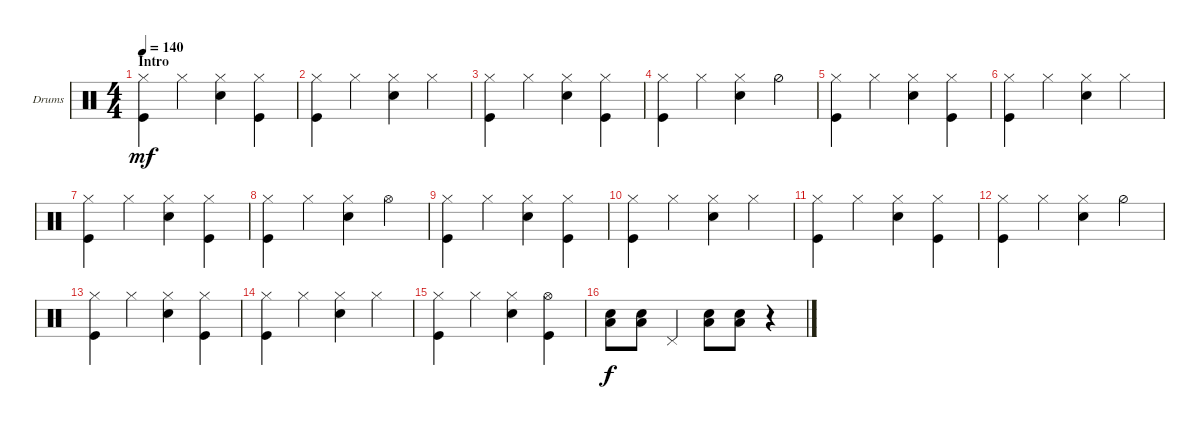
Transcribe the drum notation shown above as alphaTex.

\bracketExtendMode groupsimilarinstruments
\firstSystemTrackNameOrientation horizontal
\otherSystemsTrackNameOrientation horizontal
\track ("Drumkit (Ray Cooper)" "Drums") {instrument percussion}
\staff {score}
\articulation defaults
\ts (4 4)
\section ("" "Intro")
\tempo 140
\clef neutral
\scale
1.17024
\ks c
("Kick (hit)" "Hi-Hat (closed)").4{dy mf} "Hi-Hat (closed)".4 ("Hi-Hat (closed)" "Snare (hit) 2").4 ("Hi-Hat (closed)" "Kick (hit)").4 |
\scale
0.943253 ("Hi-Hat (closed)" "Kick (hit)").4 "Hi-Hat (closed)".4 ("Hi-Hat (closed)" "Snare (hit) 2").4 "Hi-Hat (closed)".4 |
\scale
0.943253 ("Kick (hit)" "Hi-Hat (closed)").4 "Hi-Hat (closed)".4 ("Hi-Hat (closed)" "Snare (hit) 2").4 ("Hi-Hat (closed)" "Kick (hit)").4 |
\scale
0.943253 ("Hi-Hat (closed)" "Kick (hit)").4 "Hi-Hat (closed)".4 ("Hi-Hat (closed)" "Snare (hit) 2").4 "Hi-Hat (half)".4 |
\scale
1.07945 ("Kick (hit)" "Hi-Hat (closed)").4 "Hi-Hat (closed)".4 ("Hi-Hat (closed)" "Snare (hit) 2").4 ("Hi-Hat (closed)" "Kick (hit)").4 |
\scale
0.973518 ("Hi-Hat (closed)" "Kick (hit)").4 "Hi-Hat (closed)".4 ("Hi-Hat (closed)" "Snare (hit) 2").4 "Hi-Hat (closed)".4 |
\scale
0.973518 ("Kick (hit)" "Hi-Hat (closed)").4 "Hi-Hat (closed)".4 ("Hi-Hat (closed)" "Snare (hit) 2").4 ("Hi-Hat (closed)" "Kick (hit)").4 |
\scale
0.973518 ("Hi-Hat (closed)" "Kick (hit)").4 "Hi-Hat (closed)".4 ("Hi-Hat (closed)" "Snare (hit) 2").4 "Hi-Hat (open)".4 |
\scale
1.07945 ("Kick (hit)" "Hi-Hat (closed)").4 "Hi-Hat (closed)".4 ("Hi-Hat (closed)" "Snare (hit) 2").4 ("Hi-Hat (closed)" "Kick (hit)").4 |
\scale
0.973518 ("Hi-Hat (closed)" "Kick (hit)").4 "Hi-Hat (closed)".4 ("Hi-Hat (closed)" "Snare (hit) 2").4 "Hi-Hat (closed)".4 |
\scale
0.973518 ("Kick (hit)" "Hi-Hat (closed)").4 "Hi-Hat (closed)".4 ("Hi-Hat (closed)" "Snare (hit) 2").4 ("Hi-Hat (closed)" "Kick (hit)").4 |
\scale
0.973518 ("Hi-Hat (closed)" "Kick (hit)").4 "Hi-Hat (closed)".4 ("Hi-Hat (closed)" "Snare (hit) 2").4 "Hi-Hat (half)".4 |
\scale
1.07945 ("Kick (hit)" "Hi-Hat (closed)").4 "Hi-Hat (closed)".4 ("Hi-Hat (closed)" "Snare (hit) 2").4 ("Hi-Hat (closed)" "Kick (hit)").4 |
\scale
0.973518 ("Hi-Hat (closed)" "Kick (hit)").4 "Hi-Hat (closed)".4 ("Hi-Hat (closed)" "Snare (hit) 2").4 "Hi-Hat (closed)".4 |
\scale
0.973518 ("Kick (hit)" "Hi-Hat (closed)").4 "Hi-Hat (closed)".4 ("Hi-Hat (closed)" "Snare (hit) 2").4 ("Hi-Hat (open)" "Kick (hit)").4 |
\scale
0.973518 ("Low Tom (hit)" "Snare (hit) 2").8{dy f} ("Snare (hit) 2" "Low Tom (hit)").8 "Pedal Hi-Hat (hit)".4 ("Snare (hit) 2" "Low Tom (hit)").8 ("Snare (hit) 2" "Low Tom (hit)").8 r.4
